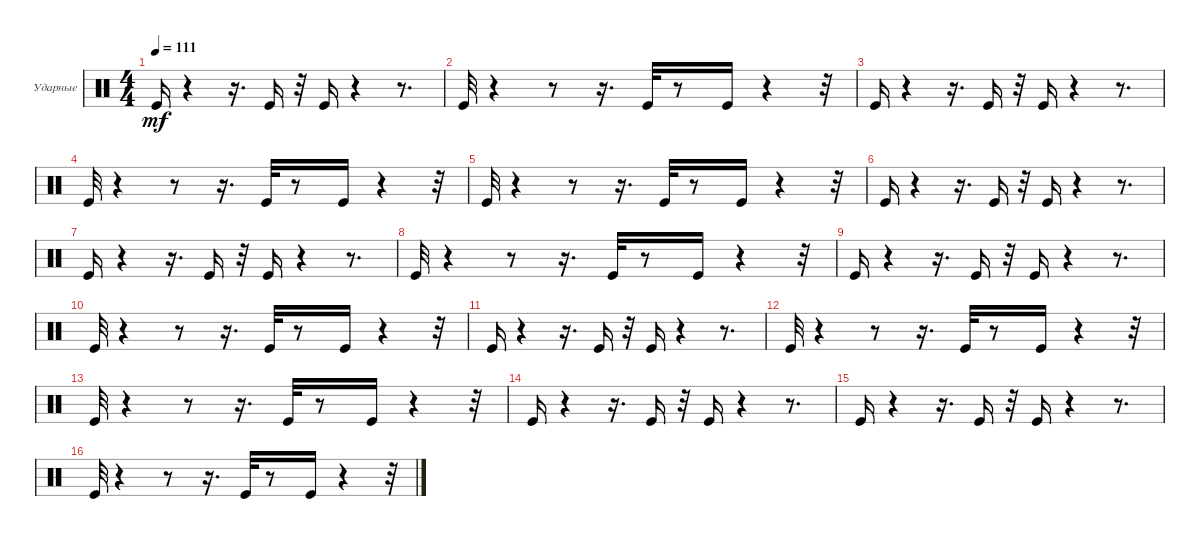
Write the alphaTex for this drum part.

\bracketExtendMode groupsimilarinstruments
\firstSystemTrackNameOrientation horizontal
\otherSystemsTrackNameOrientation horizontal
\track ("Ударные" "Ударные") {instrument percussion}
\staff {score}
\articulation defaults
\ts (4 4)
\tempo 111
\clef neutral
\ks c "Kick (hit)".16{dy mf}
r.4 r.16{d} "Kick (hit)".16 r.32 "Kick (hit)".16 r.4 r.8{d} |
"Kick (hit)".32 r.4 r.8 r.16{d} "Kick (hit)".32 r.8 "Kick (hit)".16 r.4 r.32 |
"Kick (hit)".16 r.4 r.16{d} "Kick (hit)".16 r.32 "Kick (hit)".16 r.4 r.8{d} |
"Kick (hit)".32 r.4 r.8 r.16{d} "Kick (hit)".32 r.8 "Kick (hit)".16 r.4 r.32 |
"Kick (hit)".32 r.4 r.8 r.16{d} "Kick (hit)".32 r.8 "Kick (hit)".16 r.4 r.32 |
"Kick (hit)".16 r.4 r.16{d} "Kick (hit)".16 r.32 "Kick (hit)".16 r.4 r.8{d} |
"Kick (hit)".16 r.4 r.16{d} "Kick (hit)".16 r.32 "Kick (hit)".16 r.4 r.8{d} |
"Kick (hit)".32 r.4 r.8 r.16{d} "Kick (hit)".32 r.8 "Kick (hit)".16 r.4 r.32 |
"Kick (hit)".16 r.4 r.16{d} "Kick (hit)".16 r.32 "Kick (hit)".16 r.4 r.8{d} |
"Kick (hit)".32 r.4 r.8 r.16{d} "Kick (hit)".32 r.8 "Kick (hit)".16 r.4 r.32 |
"Kick (hit)".16 r.4 r.16{d} "Kick (hit)".16 r.32 "Kick (hit)".16 r.4 r.8{d} |
"Kick (hit)".32 r.4 r.8 r.16{d} "Kick (hit)".32 r.8 "Kick (hit)".16 r.4 r.32 |
"Kick (hit)".32 r.4 r.8 r.16{d} "Kick (hit)".32 r.8 "Kick (hit)".16 r.4 r.32 |
"Kick (hit)".16 r.4 r.16{d} "Kick (hit)".16 r.32 "Kick (hit)".16 r.4 r.8{d} |
"Kick (hit)".16 r.4 r.16{d} "Kick (hit)".16 r.32 "Kick (hit)".16 r.4 r.8{d} |
"Kick (hit)".32 r.4 r.8 r.16{d} "Kick (hit)".32 r.8 "Kick (hit)".16 r.4 r.32
